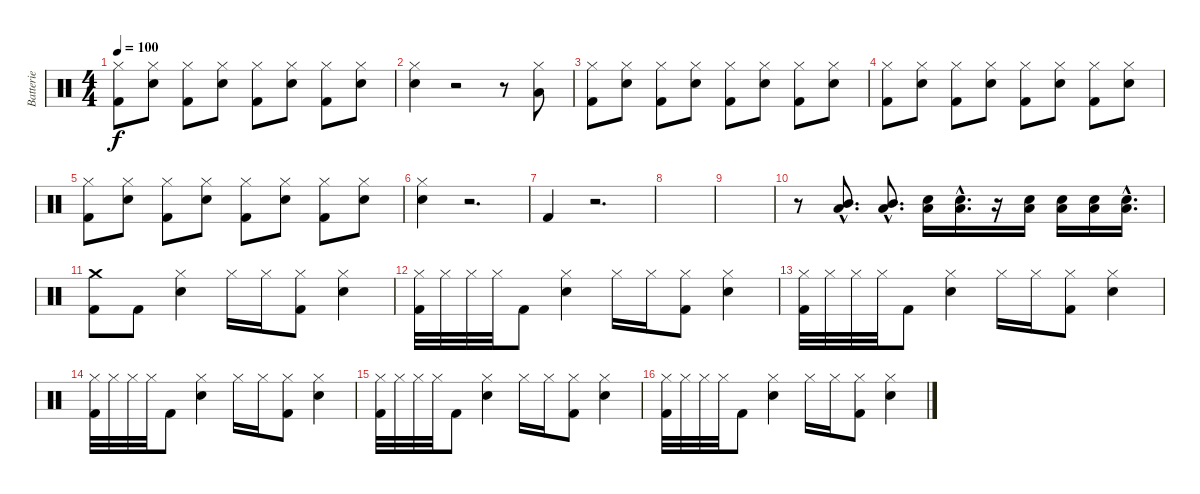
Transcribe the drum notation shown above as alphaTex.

\track ("Batterie" "Batterie") {instrument percussion}
\staff {score}
\articulation defaults
\ts (4 4)
\tempo 100
\clef neutral
\ks c
("Kick (hit) 2" "Hi-Hat (closed)").8{dy f} ("Electric Snare (hit)" "Hi-Hat (closed)").8 ("Kick (hit) 2" "Hi-Hat (closed)").8 ("Electric Snare (hit)" "Hi-Hat (closed)").8 ("Kick (hit) 2" "Hi-Hat (closed)").8 ("Electric Snare (hit)" "Hi-Hat (closed)").8 ("Kick (hit) 2" "Hi-Hat (closed)").8 ("Electric Snare (hit)" "Hi-Hat (closed)").8 |
("Electric Snare (hit)" "Hi-Hat (closed)").4 r.2 r.8 ("Low Tom (hit)" "Hi-Hat (closed)").8 |
("Kick (hit) 2" "Hi-Hat (closed)").8 ("Electric Snare (hit)" "Hi-Hat (closed)").8 ("Kick (hit) 2" "Hi-Hat (closed)").8 ("Electric Snare (hit)" "Hi-Hat (closed)").8 ("Kick (hit) 2" "Hi-Hat (closed)").8 ("Electric Snare (hit)" "Hi-Hat (closed)").8 ("Kick (hit) 2" "Hi-Hat (closed)").8 ("Electric Snare (hit)" "Hi-Hat (closed)").8 |
("Kick (hit) 2" "Hi-Hat (closed)").8 ("Electric Snare (hit)" "Hi-Hat (closed)").8 ("Kick (hit) 2" "Hi-Hat (closed)").8 ("Electric Snare (hit)" "Hi-Hat (closed)").8 ("Kick (hit) 2" "Hi-Hat (closed)").8 ("Electric Snare (hit)" "Hi-Hat (closed)").8 ("Kick (hit) 2" "Hi-Hat (closed)").8 ("Electric Snare (hit)" "Hi-Hat (closed)").8 |
("Kick (hit) 2" "Hi-Hat (closed)").8 ("Electric Snare (hit)" "Hi-Hat (closed)").8 ("Kick (hit) 2" "Hi-Hat (closed)").8 ("Electric Snare (hit)" "Hi-Hat (closed)").8 ("Kick (hit) 2" "Hi-Hat (closed)").8 ("Electric Snare (hit)" "Hi-Hat (closed)").8 ("Kick (hit) 2" "Hi-Hat (closed)").8 ("Electric Snare (hit)" "Hi-Hat (closed)").8 |
("Electric Snare (hit)" "Hi-Hat (closed)").4 r.2{d} |
"Kick (hit) 2".4 r.2{d} |
|
|
r.8 ("Mid Tom (hit)"{hac} "Low Tom (hit)"{hac}).8{d} ("Mid Tom (hit)"{hac} "Low Tom (hit)"{hac}).8{d} ("Electric Snare (hit)" "Low Tom (hit)").16 ("Electric Snare (hit)"{hac} "Low Tom (hit)"{hac}).16{d} r.16 ("Electric Snare (hit)" "Low Tom (hit)").16 ("Electric Snare (hit)" "Low Tom (hit)").16 ("Electric Snare (hit)" "Low Tom (hit)").16 ("Electric Snare (hit)"{hac} "Low Tom (hit)"{hac}).16{d} |
("Crash medium (hit)" "Kick (hit) 2").8 "Kick (hit) 2".8 ("Electric Snare (hit)" "Hi-Hat (closed)").4 "Hi-Hat (closed)".16 "Hi-Hat (closed)".16 ("Kick (hit) 2" "Hi-Hat (closed)").8 ("Electric Snare (hit)" "Hi-Hat (closed)").4 |
("Kick (hit) 2" "Hi-Hat (closed)").32 "Hi-Hat (closed)".32 "Hi-Hat (closed)".32 "Hi-Hat (closed)".32 "Kick (hit) 2".8 ("Electric Snare (hit)" "Hi-Hat (closed)").4 "Hi-Hat (closed)".16 "Hi-Hat (closed)".16 ("Kick (hit) 2" "Hi-Hat (closed)").8 ("Electric Snare (hit)" "Hi-Hat (closed)").4 |
("Kick (hit) 2" "Hi-Hat (closed)").32 "Hi-Hat (closed)".32 "Hi-Hat (closed)".32 "Hi-Hat (closed)".32 "Kick (hit) 2".8 ("Electric Snare (hit)" "Hi-Hat (closed)").4 "Hi-Hat (closed)".16 "Hi-Hat (closed)".16 ("Kick (hit) 2" "Hi-Hat (closed)").8 ("Electric Snare (hit)" "Hi-Hat (closed)").4 |
("Kick (hit) 2" "Hi-Hat (closed)").32 "Hi-Hat (closed)".32 "Hi-Hat (closed)".32 "Hi-Hat (closed)".32 "Kick (hit) 2".8 ("Electric Snare (hit)" "Hi-Hat (closed)").4 "Hi-Hat (closed)".16 "Hi-Hat (closed)".16 ("Kick (hit) 2" "Hi-Hat (closed)").8 ("Electric Snare (hit)" "Hi-Hat (closed)").4 |
("Kick (hit) 2" "Hi-Hat (closed)").32 "Hi-Hat (closed)".32 "Hi-Hat (closed)".32 "Hi-Hat (closed)".32 "Kick (hit) 2".8 ("Electric Snare (hit)" "Hi-Hat (closed)").4 "Hi-Hat (closed)".16 "Hi-Hat (closed)".16 ("Kick (hit) 2" "Hi-Hat (closed)").8 ("Electric Snare (hit)" "Hi-Hat (closed)").4 |
("Kick (hit) 2" "Hi-Hat (closed)").32 "Hi-Hat (closed)".32 "Hi-Hat (closed)".32 "Hi-Hat (closed)".32 "Kick (hit) 2".8 ("Electric Snare (hit)" "Hi-Hat (closed)").4 "Hi-Hat (closed)".16 "Hi-Hat (closed)".16 ("Kick (hit) 2" "Hi-Hat (closed)").8 ("Electric Snare (hit)" "Hi-Hat (closed)").4
